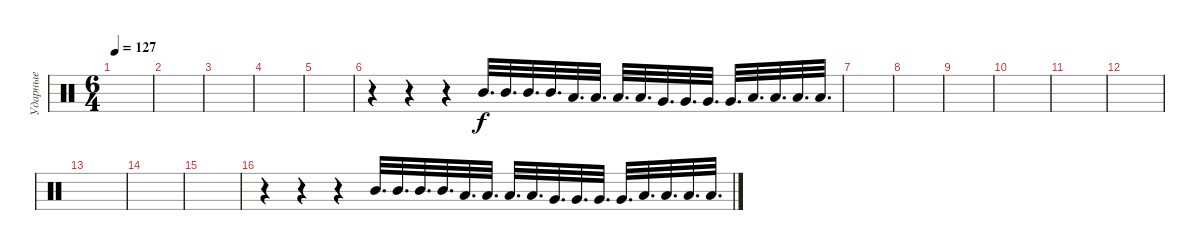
\track ("Ударные" "Ударные") {instrument percussion}
\staff {score}
\articulation defaults
\ts (6 4)
\tempo 127
\clef neutral
\ks c
|
|
|
|
|
r.4 r.4 r.4 "Mid Tom (hit)".32{d} "Mid Tom (hit)".32{d} "Mid Tom (hit)".32{d} "Mid Tom (hit)".32{d} "Low Tom (hit)".32{d} "Low Tom (hit)".32{d} "Low Tom (hit)".32{d} "Low Tom (hit)".32{d} "Very Low Tom (hit)".32{d} "Very Low Tom (hit)".32{d} "Very Low Tom (hit)".32{d} "Very Low Tom (hit)".32{d} "Low Floor Tom (hit)".32{d} "Low Floor Tom (hit)".32{d} "Low Floor Tom (hit)".32{d} "Low Floor Tom (hit)".32{d} |
|
|
|
|
|
|
|
|
|
r.4 r.4 r.4 "Mid Tom (hit)".32{d} "Mid Tom (hit)".32{d} "Mid Tom (hit)".32{d} "Mid Tom (hit)".32{d} "Low Tom (hit)".32{d} "Low Tom (hit)".32{d} "Low Tom (hit)".32{d} "Low Tom (hit)".32{d} "Very Low Tom (hit)".32{d} "Very Low Tom (hit)".32{d} "Very Low Tom (hit)".32{d} "Very Low Tom (hit)".32{d} "Low Floor Tom (hit)".32{d} "Low Floor Tom (hit)".32{d} "Low Floor Tom (hit)".32{d} "Low Floor Tom (hit)".32{d}
